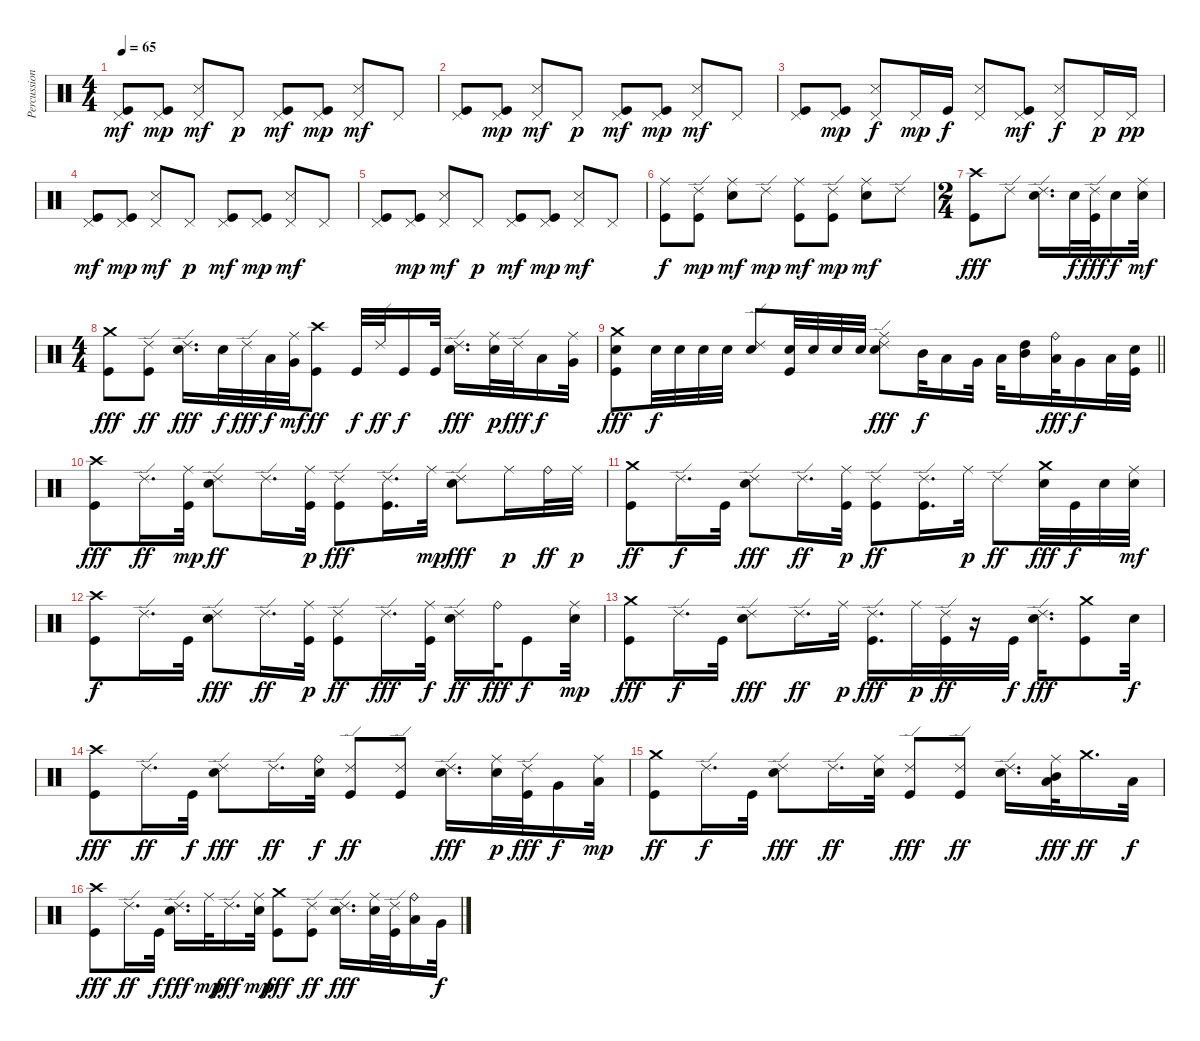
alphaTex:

\track ("Percussions" "Percussion") {instrument percussion}
\staff {score}
\articulation defaults
\ts (4 4)
\tempo 65
\clef neutral
\ks c
("Pedal Hi-Hat (hit)" "Kick (hit)").8{dy mf} ("Pedal Hi-Hat (hit)" "Kick (hit)").8{dy mp} ("Pedal Hi-Hat (hit)" "Snare (side stick) 3").8{dy mf} "Pedal Hi-Hat (hit)".8{dy p} ("Pedal Hi-Hat (hit)" "Kick (hit)").8{dy mf} ("Pedal Hi-Hat (hit)" "Kick (hit)").8{dy mp} ("Pedal Hi-Hat (hit)" "Snare (side stick) 3").8{dy mf} "Pedal Hi-Hat (hit)".8 |
("Pedal Hi-Hat (hit)" "Kick (hit)").8 ("Pedal Hi-Hat (hit)" "Kick (hit)").8{dy mp} ("Pedal Hi-Hat (hit)" "Snare (side stick) 3").8{dy mf} "Pedal Hi-Hat (hit)".8{dy p} ("Pedal Hi-Hat (hit)" "Kick (hit)").8{dy mf} ("Pedal Hi-Hat (hit)" "Kick (hit)").8{dy mp} ("Pedal Hi-Hat (hit)" "Snare (side stick) 3").8{dy mf} "Pedal Hi-Hat (hit)".8 |
("Pedal Hi-Hat (hit)" "Kick (hit)").8 ("Pedal Hi-Hat (hit)" "Kick (hit)").8{dy mp} ("Pedal Hi-Hat (hit)" "Snare (side stick) 3").8{dy f} "Pedal Hi-Hat (hit)".16{dy mp} "Kick (hit)".16{dy f} ("Pedal Hi-Hat (hit)" "Snare (side stick) 3").8 ("Pedal Hi-Hat (hit)" "Kick (hit)").8{dy mf} ("Pedal Hi-Hat (hit)" "Snare (side stick) 3").8{dy f} "Pedal Hi-Hat (hit)".16{dy p} "Pedal Hi-Hat (hit)".16{dy pp} |
("Pedal Hi-Hat (hit)" "Kick (hit)").8{dy mf} ("Pedal Hi-Hat (hit)" "Kick (hit)").8{dy mp} ("Pedal Hi-Hat (hit)" "Snare (side stick) 3").8{dy mf} "Pedal Hi-Hat (hit)".8{dy p} ("Pedal Hi-Hat (hit)" "Kick (hit)").8{dy mf} ("Pedal Hi-Hat (hit)" "Kick (hit)").8{dy mp} ("Pedal Hi-Hat (hit)" "Snare (side stick) 3").8{dy mf} "Pedal Hi-Hat (hit)".8 |
("Pedal Hi-Hat (hit)" "Kick (hit)").8 ("Pedal Hi-Hat (hit)" "Kick (hit)").8{dy mp} ("Pedal Hi-Hat (hit)" "Snare (side stick) 3").8{dy mf} "Pedal Hi-Hat (hit)".8{dy p} ("Pedal Hi-Hat (hit)" "Kick (hit)").8{dy mf} ("Pedal Hi-Hat (hit)" "Kick (hit)").8{dy mp} ("Pedal Hi-Hat (hit)" "Snare (side stick) 3").8{dy mf} "Pedal Hi-Hat (hit)".8 |
("Ride (middle)" "Kick (hit)").8{dy f} ("Ride (edge) 2" "Kick (hit)").8{dy mp} ("Ride (middle)" "Electric Snare (hit)").8{dy mf} "Ride (edge) 2".8{dy mp} ("Ride (middle)" "Kick (hit)").8{dy mf} ("Ride (edge) 2" "Kick (hit)").8{dy mp} ("Ride (middle)" "Electric Snare (hit)").8{dy mf} "Ride (edge) 2".8 |
\ts (2 4)
("Crash high (hit)" "Kick (hit)").8{dy fff} "Ride (edge) 2".8 ("Ride (edge) 2" "Electric Snare (hit)").16{d} "Electric Snare (hit)".32{dy f} ("Ride (edge) 2" "Kick (hit)").32{dy fff} "Electric Snare (hit)".16{dy f} ("Ride (middle)" "Electric Snare (hit)").32{dy mf} |
\ts (4 4)
("Crash medium (hit)" "Kick (hit)").8{dy fff} ("Ride (edge) 2" "Kick (hit)").8{dy ff} ("Ride (edge) 2" "Electric Snare (hit)").16{d dy fff} "Electric Snare (hit)".32{dy f} "Ride (edge) 2".32{dy fff} "Low Tom (hit)".32{dy f} ("Ride (middle)" "Very Low Tom (hit)").32{dy mf} ("Crash high (hit)" "Kick (hit)").8{dy ff} "Kick (hit)".32{dy f} "Ride (edge) 2".32{dy ff} "Kick (hit)".16{dy f} "Kick (hit)".32 ("Ride (edge) 2" "Electric Snare (hit)").16{d dy fff} ("Ride (middle)" "Electric Snare (hit)").32{dy p} "Ride (edge) 2".32{dy fff} "Low Tom (hit)".16{dy f} ("Ride (middle)" "Very Low Tom (hit)").32 |
\barLineRight lightlight
("Crash medium (hit)" "Electric Snare (hit)" "Kick (hit)").8{dy fff} "Electric Snare (hit)".32{dy f} "Electric Snare (hit)".32 "Electric Snare (hit)".32 "Electric Snare (hit)".32 ("Ride (edge) 2" "Electric Snare (hit)").8 ("Electric Snare (hit)" "Kick (hit)").32 "Electric Snare (hit)".32 "Electric Snare (hit)".32 "Electric Snare (hit)".32 ("Ride (edge) 2" "Ride (middle)" "Electric Snare (hit)").8{dy fff} "Mid Tom (hit)".32{dy f} "Low Tom (hit)".16 "Very Low Tom (hit)".32 "Low Floor Tom (hit)".32 ("High Tom (hit)" "Mid Tom (hit)").16 ("Ride (bell)" "Low Tom (hit)").32{dy fff} "Very Low Tom (hit)".16{dy f} "Low Floor Tom (hit)".32 ("Electric Snare (hit)" "Kick (hit)").32 |
("Crash high (hit)" "Kick (hit)").8{dy fff} "Ride (edge) 2".16{d dy ff} ("Ride (middle)" "Kick (hit)").32{dy mp} ("Ride (edge) 2" "Electric Snare (hit)").8{dy ff} "Ride (edge) 2".16{d} ("Ride (middle)" "Kick (hit)").32{dy p} ("Ride (edge) 2" "Kick (hit)").8{dy fff} ("Ride (edge) 2" "Kick (hit)").16{d} "Ride (middle)".32{dy mp} ("Ride (edge) 2" "Electric Snare (hit)").8{dy fff} "Ride (middle)".16{dy p} "Ride (bell)".32{dy ff} "Ride (middle)".32{dy p} |
("Crash medium (hit)" "Kick (hit)").8{dy ff} "Ride (edge) 2".16{d dy f} "Kick (hit)".32 ("Ride (edge) 2" "Electric Snare (hit)").8{dy fff} "Ride (edge) 2".16{d dy ff} ("Ride (middle)" "Kick (hit)").32{dy p} ("Ride (edge) 2" "Kick (hit)").8{dy ff} ("Ride (edge) 2" "Kick (hit)").16{d} "Ride (middle)".32{dy p} "Ride (edge) 2".8{dy ff} ("Crash medium (hit)" "Electric Snare (hit)").32{dy fff} "Kick (hit)".32{dy f} "Electric Snare (hit)".32 ("Ride (middle)" "Electric Snare (hit)").32{dy mf} |
("Crash high (hit)" "Kick (hit)").8{dy f} "Ride (edge) 2".16{d} "Kick (hit)".32 ("Ride (edge) 2" "Electric Snare (hit)").8{dy fff} "Ride (edge) 2".16{d dy ff} ("Ride (middle)" "Kick (hit)").32{dy p} ("Ride (edge) 2" "Kick (hit)").8{dy ff} "Ride (edge) 2".16{d dy fff} ("Ride (middle)" "Kick (hit)").32{dy f} ("Ride (edge) 2" "Electric Snare (hit)").16{dy ff} "Ride (bell)".32{dy fff} "Kick (hit)".8{dy f} ("Ride (middle)" "Electric Snare (hit)").32{dy mp} |
("Crash medium (hit)" "Kick (hit)").8{dy fff} "Ride (edge) 2".16{d dy f} "Kick (hit)".32 ("Ride (edge) 2" "Electric Snare (hit)").8{dy fff} "Ride (edge) 2".16{d dy ff} "Ride (middle)".32{dy p} ("Ride (edge) 2" "Kick (hit)").16{d dy fff} "Ride (middle)".32{dy p} ("Ride (edge) 2" "Kick (hit)").32{dy ff} r.16 "Kick (hit)".32{dy f} ("Ride (edge) 2" "Electric Snare (hit)").16{d dy fff} ("Crash medium (hit)" "Kick (hit)").8 "Electric Snare (hit)".32{dy f} |
("Crash high (hit)" "Kick (hit)").8{dy fff} "Ride (edge) 2".16{d dy ff} "Kick (hit)".32{dy f} ("Ride (edge) 2" "Electric Snare (hit)").8{dy fff} "Ride (edge) 2".16{d dy ff} ("Ride (bell)" "Electric Snare (hit)").32{dy f} ("Ride (edge) 2" "Kick (hit)").8{dy ff} ("Ride (edge) 2" "Kick (hit)").8 ("Ride (edge) 2" "Electric Snare (hit)").16{d dy fff} ("Ride (middle)" "Electric Snare (hit)").32{dy p} ("Ride (edge) 2" "Kick (hit)").32{dy fff} "Very Low Tom (hit)".16{dy f} ("Ride (middle)" "Low Floor Tom (hit)").32{dy mp} |
("Crash medium (hit)" "Kick (hit)").8{dy ff} "Ride (edge) 2".16{d dy f} "Kick (hit)".32 ("Ride (edge) 2" "Electric Snare (hit)").8{dy fff} "Ride (edge) 2".16{d dy ff} ("Ride (middle)" "Electric Snare (hit)").32 ("Ride (edge) 2" "Kick (hit)").8{dy fff} ("Ride (edge) 2" "Kick (hit)").8{dy ff} ("Ride (edge) 2" "Electric Snare (hit)").16{d} ("Ride (middle)" "Mid Tom (hit)" "Low Tom (hit)").32{dy fff} "Crash medium (hit)".16{d dy ff} "Low Floor Tom (hit)".32{dy f} |
("Crash high (hit)" "Kick (hit)").8{dy fff} "Ride (edge) 2".16{d dy ff} "Kick (hit)".32{dy f} ("Ride (edge) 2" "Electric Snare (hit)").16{d dy fff} "Ride (middle)".32{dy mp} "Ride (edge) 2".16{d dy fff} ("Ride (middle)" "Electric Snare (hit)").32{dy mp} ("Crash medium (hit)" "Kick (hit)").8{dy fff} ("Ride (edge) 2" "Kick (hit)").8{dy ff} ("Ride (edge) 2" "Electric Snare (hit)").16{d dy fff} ("Ride (middle)" "Electric Snare (hit)").32 ("Ride (edge) 2" "Kick (hit)").32 ("Ride (bell)" "Low Tom (hit)").16 "Very Low Tom (hit)".32{dy f}
